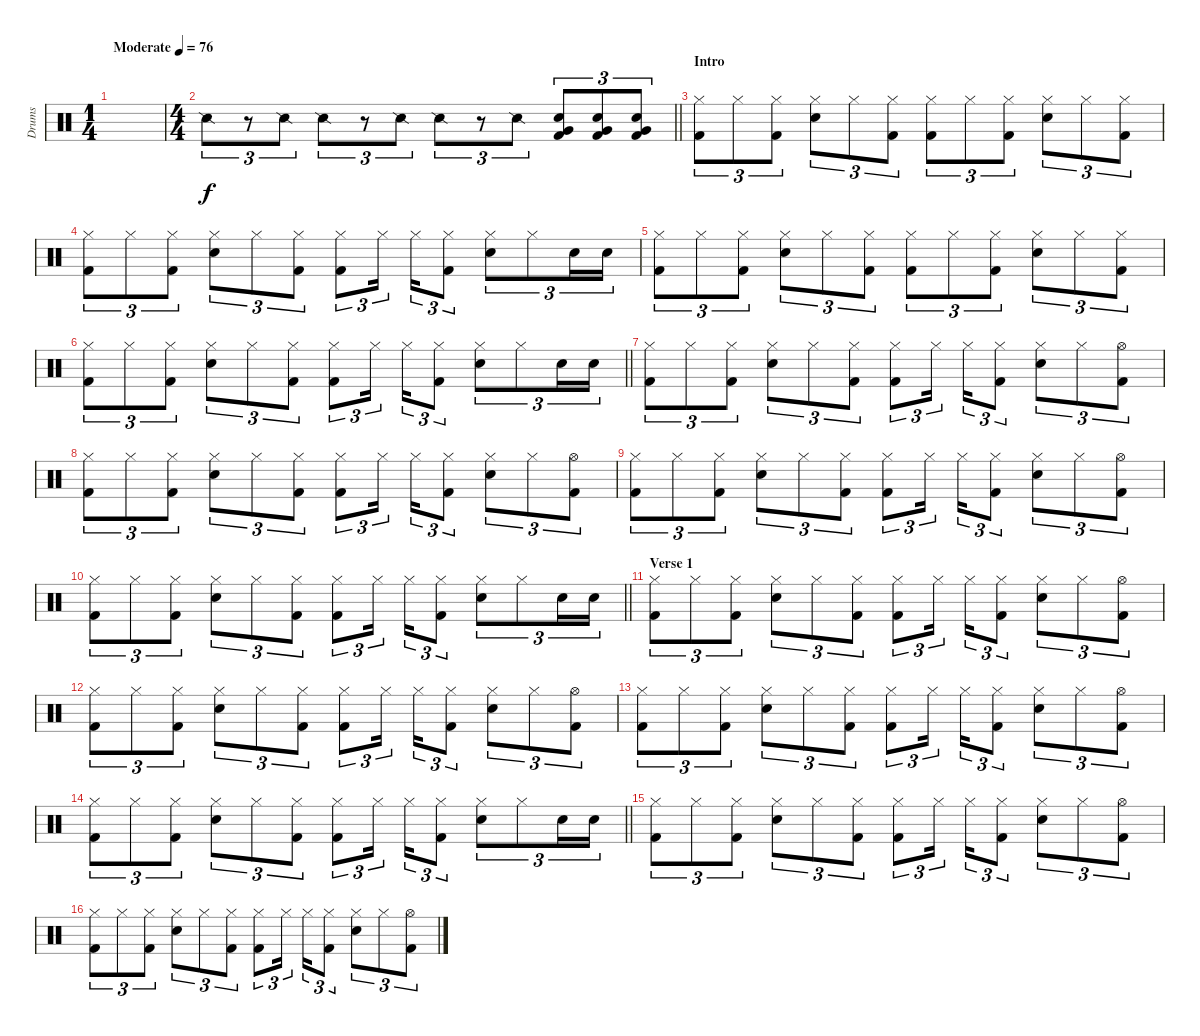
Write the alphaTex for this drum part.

\track ("Drums" "Drums") {instrument percussion}
\staff {score}
\articulation defaults
\ts (1 4)
\tempo (76 "Moderate")
\clef neutral
\ks c
|
\ts (4 4)
\barLineRight lightlight "Snare (side stick) 2".8{tu (3 2)}
r.8{tu (3 2)} "Snare (side stick) 2".8{tu (3 2)} "Snare (side stick) 2".8{tu (3 2)} r.8{tu (3 2)} "Snare (side stick) 2".8{tu (3 2)} "Snare (side stick) 2".8{tu (3 2)} r.8{tu (3 2)} "Snare (side stick) 2".8{tu (3 2)} ("Snare (hit) 2" "Very Low Tom (hit)" "Kick (hit) 2").8{tu (3 2)} ("Snare (hit) 2" "Very Low Tom (hit)" "Kick (hit) 2").8{tu (3 2)} ("Snare (hit) 2" "Very Low Tom (hit)" "Kick (hit) 2").8{tu (3 2)} |
\section ("" "Intro")
("Hi-Hat (closed)" "Kick (hit) 2").8{tu (3 2)} "Hi-Hat (closed)".8{tu (3 2)} ("Hi-Hat (closed)" "Kick (hit) 2").8{tu (3 2)} ("Hi-Hat (closed)" "Snare (hit) 2").8{tu (3 2)} "Hi-Hat (closed)".8{tu (3 2)} ("Hi-Hat (closed)" "Kick (hit) 2").8{tu (3 2)} ("Hi-Hat (closed)" "Kick (hit) 2").8{tu (3 2)} "Hi-Hat (closed)".8{tu (3 2)} ("Hi-Hat (closed)" "Kick (hit) 2").8{tu (3 2)} ("Hi-Hat (closed)" "Snare (hit) 2").8{tu (3 2)} "Hi-Hat (closed)".8{tu (3 2)} ("Hi-Hat (closed)" "Kick (hit) 2").8{tu (3 2)} |
("Hi-Hat (closed)" "Kick (hit) 2").8{tu (3 2)} "Hi-Hat (closed)".8{tu (3 2)} ("Hi-Hat (closed)" "Kick (hit) 2").8{tu (3 2)} ("Hi-Hat (closed)" "Snare (hit) 2").8{tu (3 2)} "Hi-Hat (closed)".8{tu (3 2)} ("Hi-Hat (closed)" "Kick (hit) 2").8{tu (3 2)} ("Hi-Hat (closed)" "Kick (hit) 2").8{tu (3 2)} "Hi-Hat (closed)".16{tu (3 2) beam splitsecondary} "Hi-Hat (closed)".16{tu (3 2)} ("Hi-Hat (closed)" "Kick (hit) 2").8{tu (3 2)} ("Hi-Hat (closed)" "Snare (hit) 2").8{tu (3 2)} "Hi-Hat (closed)".8{tu (3 2)} "Snare (hit) 2".16{tu (3 2)} "Snare (hit) 2".16{tu (3 2)} |
("Hi-Hat (closed)" "Kick (hit) 2").8{tu (3 2)} "Hi-Hat (closed)".8{tu (3 2)} ("Hi-Hat (closed)" "Kick (hit) 2").8{tu (3 2)} ("Hi-Hat (closed)" "Snare (hit) 2").8{tu (3 2)} "Hi-Hat (closed)".8{tu (3 2)} ("Hi-Hat (closed)" "Kick (hit) 2").8{tu (3 2)} ("Hi-Hat (closed)" "Kick (hit) 2").8{tu (3 2)} "Hi-Hat (closed)".8{tu (3 2)} ("Hi-Hat (closed)" "Kick (hit) 2").8{tu (3 2)} ("Hi-Hat (closed)" "Snare (hit) 2").8{tu (3 2)} "Hi-Hat (closed)".8{tu (3 2)} ("Hi-Hat (closed)" "Kick (hit) 2").8{tu (3 2)} |
\barLineRight lightlight
("Hi-Hat (closed)" "Kick (hit) 2").8{tu (3 2)} "Hi-Hat (closed)".8{tu (3 2)} ("Hi-Hat (closed)" "Kick (hit) 2").8{tu (3 2)} ("Hi-Hat (closed)" "Snare (hit) 2").8{tu (3 2)} "Hi-Hat (closed)".8{tu (3 2)} ("Hi-Hat (closed)" "Kick (hit) 2").8{tu (3 2)} ("Hi-Hat (closed)" "Kick (hit) 2").8{tu (3 2)} "Hi-Hat (closed)".16{tu (3 2) beam splitsecondary} "Hi-Hat (closed)".16{tu (3 2)} ("Hi-Hat (closed)" "Kick (hit) 2").8{tu (3 2)} ("Hi-Hat (closed)" "Snare (hit) 2").8{tu (3 2)} "Hi-Hat (closed)".8{tu (3 2)} "Snare (hit) 2".16{tu (3 2)} "Snare (hit) 2".16{tu (3 2)} |
("Hi-Hat (closed)" "Kick (hit) 2").8{tu (3 2)} "Hi-Hat (closed)".8{tu (3 2)} ("Hi-Hat (closed)" "Kick (hit) 2").8{tu (3 2)} ("Hi-Hat (closed)" "Snare (hit) 2").8{tu (3 2)} "Hi-Hat (closed)".8{tu (3 2)} ("Hi-Hat (closed)" "Kick (hit) 2").8{tu (3 2)} ("Hi-Hat (closed)" "Kick (hit) 2").8{tu (3 2)} "Hi-Hat (closed)".16{tu (3 2) beam splitsecondary} "Hi-Hat (closed)".16{tu (3 2)} ("Hi-Hat (closed)" "Kick (hit) 2").8{tu (3 2)} ("Hi-Hat (closed)" "Snare (hit) 2").8{tu (3 2)} "Hi-Hat (closed)".8{tu (3 2)} ("Hi-Hat (open)" "Kick (hit) 2").8{tu (3 2)} |
("Hi-Hat (closed)" "Kick (hit) 2").8{tu (3 2)} "Hi-Hat (closed)".8{tu (3 2)} ("Hi-Hat (closed)" "Kick (hit) 2").8{tu (3 2)} ("Hi-Hat (closed)" "Snare (hit) 2").8{tu (3 2)} "Hi-Hat (closed)".8{tu (3 2)} ("Hi-Hat (closed)" "Kick (hit) 2").8{tu (3 2)} ("Hi-Hat (closed)" "Kick (hit) 2").8{tu (3 2)} "Hi-Hat (closed)".16{tu (3 2) beam splitsecondary} "Hi-Hat (closed)".16{tu (3 2)} ("Hi-Hat (closed)" "Kick (hit) 2").8{tu (3 2)} ("Hi-Hat (closed)" "Snare (hit) 2").8{tu (3 2)} "Hi-Hat (closed)".8{tu (3 2)} ("Hi-Hat (open)" "Kick (hit) 2").8{tu (3 2)} |
("Hi-Hat (closed)" "Kick (hit) 2").8{tu (3 2)} "Hi-Hat (closed)".8{tu (3 2)} ("Hi-Hat (closed)" "Kick (hit) 2").8{tu (3 2)} ("Hi-Hat (closed)" "Snare (hit) 2").8{tu (3 2)} "Hi-Hat (closed)".8{tu (3 2)} ("Hi-Hat (closed)" "Kick (hit) 2").8{tu (3 2)} ("Hi-Hat (closed)" "Kick (hit) 2").8{tu (3 2)} "Hi-Hat (closed)".16{tu (3 2) beam splitsecondary} "Hi-Hat (closed)".16{tu (3 2)} ("Hi-Hat (closed)" "Kick (hit) 2").8{tu (3 2)} ("Hi-Hat (closed)" "Snare (hit) 2").8{tu (3 2)} "Hi-Hat (closed)".8{tu (3 2)} ("Hi-Hat (open)" "Kick (hit) 2").8{tu (3 2)} |
\barLineRight lightlight
("Hi-Hat (closed)" "Kick (hit) 2").8{tu (3 2)} "Hi-Hat (closed)".8{tu (3 2)} ("Hi-Hat (closed)" "Kick (hit) 2").8{tu (3 2)} ("Hi-Hat (closed)" "Snare (hit) 2").8{tu (3 2)} "Hi-Hat (closed)".8{tu (3 2)} ("Hi-Hat (closed)" "Kick (hit) 2").8{tu (3 2)} ("Hi-Hat (closed)" "Kick (hit) 2").8{tu (3 2)} "Hi-Hat (closed)".16{tu (3 2) beam splitsecondary} "Hi-Hat (closed)".16{tu (3 2)} ("Hi-Hat (closed)" "Kick (hit) 2").8{tu (3 2)} ("Hi-Hat (closed)" "Snare (hit) 2").8{tu (3 2)} "Hi-Hat (closed)".8{tu (3 2)} "Snare (hit) 2".16{tu (3 2)} "Snare (hit) 2".16{tu (3 2)} |
\section ("" "Verse 1")
("Hi-Hat (closed)" "Kick (hit) 2").8{tu (3 2)} "Hi-Hat (closed)".8{tu (3 2)} ("Hi-Hat (closed)" "Kick (hit) 2").8{tu (3 2)} ("Hi-Hat (closed)" "Snare (hit) 2").8{tu (3 2)} "Hi-Hat (closed)".8{tu (3 2)} ("Hi-Hat (closed)" "Kick (hit) 2").8{tu (3 2)} ("Hi-Hat (closed)" "Kick (hit) 2").8{tu (3 2)} "Hi-Hat (closed)".16{tu (3 2) beam splitsecondary} "Hi-Hat (closed)".16{tu (3 2)} ("Hi-Hat (closed)" "Kick (hit) 2").8{tu (3 2)} ("Hi-Hat (closed)" "Snare (hit) 2").8{tu (3 2)} "Hi-Hat (closed)".8{tu (3 2)} ("Hi-Hat (open)" "Kick (hit) 2").8{tu (3 2)} |
("Hi-Hat (closed)" "Kick (hit) 2").8{tu (3 2)} "Hi-Hat (closed)".8{tu (3 2)} ("Hi-Hat (closed)" "Kick (hit) 2").8{tu (3 2)} ("Hi-Hat (closed)" "Snare (hit) 2").8{tu (3 2)} "Hi-Hat (closed)".8{tu (3 2)} ("Hi-Hat (closed)" "Kick (hit) 2").8{tu (3 2)} ("Hi-Hat (closed)" "Kick (hit) 2").8{tu (3 2)} "Hi-Hat (closed)".16{tu (3 2) beam splitsecondary} "Hi-Hat (closed)".16{tu (3 2)} ("Hi-Hat (closed)" "Kick (hit) 2").8{tu (3 2)} ("Hi-Hat (closed)" "Snare (hit) 2").8{tu (3 2)} "Hi-Hat (closed)".8{tu (3 2)} ("Hi-Hat (open)" "Kick (hit) 2").8{tu (3 2)} |
("Hi-Hat (closed)" "Kick (hit) 2").8{tu (3 2)} "Hi-Hat (closed)".8{tu (3 2)} ("Hi-Hat (closed)" "Kick (hit) 2").8{tu (3 2)} ("Hi-Hat (closed)" "Snare (hit) 2").8{tu (3 2)} "Hi-Hat (closed)".8{tu (3 2)} ("Hi-Hat (closed)" "Kick (hit) 2").8{tu (3 2)} ("Hi-Hat (closed)" "Kick (hit) 2").8{tu (3 2)} "Hi-Hat (closed)".16{tu (3 2) beam splitsecondary} "Hi-Hat (closed)".16{tu (3 2)} ("Hi-Hat (closed)" "Kick (hit) 2").8{tu (3 2)} ("Hi-Hat (closed)" "Snare (hit) 2").8{tu (3 2)} "Hi-Hat (closed)".8{tu (3 2)} ("Hi-Hat (open)" "Kick (hit) 2").8{tu (3 2)} |
\barLineRight lightlight
("Hi-Hat (closed)" "Kick (hit) 2").8{tu (3 2)} "Hi-Hat (closed)".8{tu (3 2)} ("Hi-Hat (closed)" "Kick (hit) 2").8{tu (3 2)} ("Hi-Hat (closed)" "Snare (hit) 2").8{tu (3 2)} "Hi-Hat (closed)".8{tu (3 2)} ("Hi-Hat (closed)" "Kick (hit) 2").8{tu (3 2)} ("Hi-Hat (closed)" "Kick (hit) 2").8{tu (3 2)} "Hi-Hat (closed)".16{tu (3 2) beam splitsecondary} "Hi-Hat (closed)".16{tu (3 2)} ("Hi-Hat (closed)" "Kick (hit) 2").8{tu (3 2)} ("Hi-Hat (closed)" "Snare (hit) 2").8{tu (3 2)} "Hi-Hat (closed)".8{tu (3 2)} "Snare (hit) 2".16{tu (3 2)} "Snare (hit) 2".16{tu (3 2)} |
("Hi-Hat (closed)" "Kick (hit) 2").8{tu (3 2)} "Hi-Hat (closed)".8{tu (3 2)} ("Hi-Hat (closed)" "Kick (hit) 2").8{tu (3 2)} ("Hi-Hat (closed)" "Snare (hit) 2").8{tu (3 2)} "Hi-Hat (closed)".8{tu (3 2)} ("Hi-Hat (closed)" "Kick (hit) 2").8{tu (3 2)} ("Hi-Hat (closed)" "Kick (hit) 2").8{tu (3 2)} "Hi-Hat (closed)".16{tu (3 2) beam splitsecondary} "Hi-Hat (closed)".16{tu (3 2)} ("Hi-Hat (closed)" "Kick (hit) 2").8{tu (3 2)} ("Hi-Hat (closed)" "Snare (hit) 2").8{tu (3 2)} "Hi-Hat (closed)".8{tu (3 2)} ("Hi-Hat (open)" "Kick (hit) 2").8{tu (3 2)} |
("Hi-Hat (closed)" "Kick (hit) 2").8{tu (3 2)} "Hi-Hat (closed)".8{tu (3 2)} ("Hi-Hat (closed)" "Kick (hit) 2").8{tu (3 2)} ("Hi-Hat (closed)" "Snare (hit) 2").8{tu (3 2)} "Hi-Hat (closed)".8{tu (3 2)} ("Hi-Hat (closed)" "Kick (hit) 2").8{tu (3 2)} ("Hi-Hat (closed)" "Kick (hit) 2").8{tu (3 2)} "Hi-Hat (closed)".16{tu (3 2) beam splitsecondary} "Hi-Hat (closed)".16{tu (3 2)} ("Hi-Hat (closed)" "Kick (hit) 2").8{tu (3 2)} ("Hi-Hat (closed)" "Snare (hit) 2").8{tu (3 2)} "Hi-Hat (closed)".8{tu (3 2)} ("Hi-Hat (open)" "Kick (hit) 2").8{tu (3 2)}
